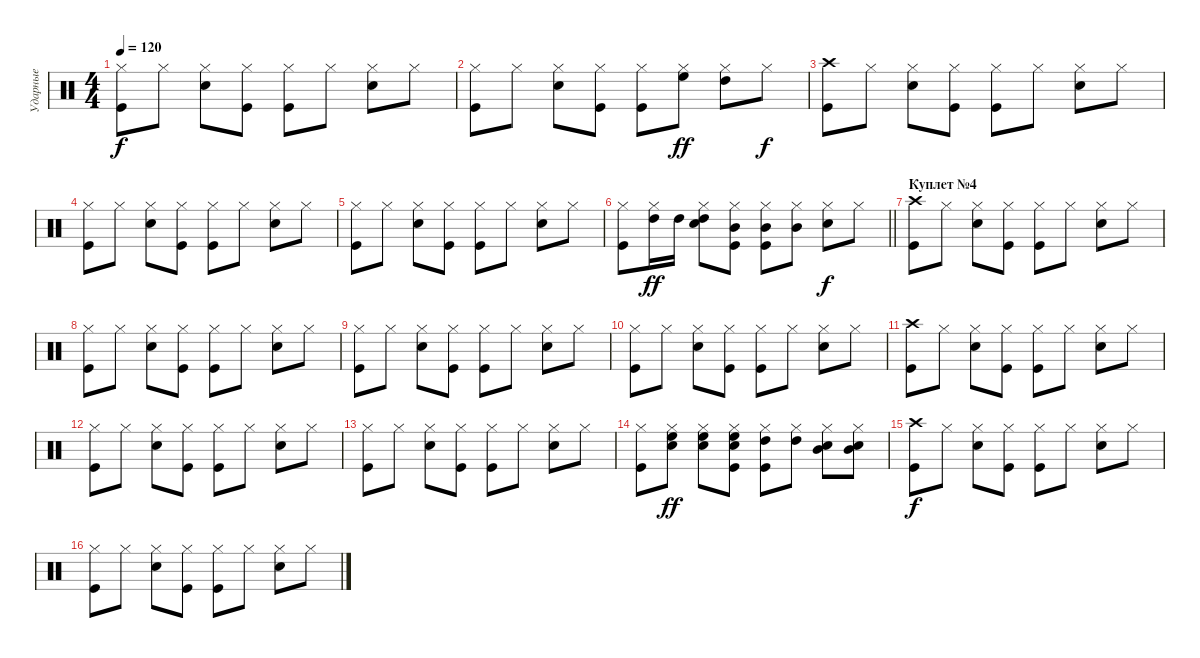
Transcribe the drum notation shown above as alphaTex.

\track ("Ударные" "Ударные") {instrument percussion}
\staff {score}
\articulation defaults
\ts (4 4)
\tempo 120
\clef neutral
\ks c
("Hi-Hat (closed)" "Kick (hit)").8{dy f} "Hi-Hat (closed)".8 ("Hi-Hat (closed)" "Snare (hit) 2").8 ("Hi-Hat (closed)" "Kick (hit)").8 ("Hi-Hat (closed)" "Kick (hit)").8 "Hi-Hat (closed)".8 ("Hi-Hat (closed)" "Snare (hit) 2").8 "Hi-Hat (closed)".8 |
("Hi-Hat (closed)" "Kick (hit)").8 "Hi-Hat (closed)".8 ("Hi-Hat (closed)" "Snare (hit) 2").8 ("Hi-Hat (closed)" "Kick (hit)").8 ("Hi-Hat (closed)" "Kick (hit)").8 ("Hi-Hat (closed)" "High Floor Tom (hit)").8{dy ff} ("Hi-Hat (closed)" "High Tom (hit)").8 "Hi-Hat (closed)".8{dy f} |
("Crash high (hit)" "Kick (hit)").8 "Hi-Hat (closed)".8 ("Hi-Hat (closed)" "Snare (hit) 2").8 ("Hi-Hat (closed)" "Kick (hit)").8 ("Hi-Hat (closed)" "Kick (hit)").8 "Hi-Hat (closed)".8 ("Hi-Hat (closed)" "Snare (hit) 2").8 "Hi-Hat (closed)".8 |
("Hi-Hat (closed)" "Kick (hit)").8 "Hi-Hat (closed)".8 ("Hi-Hat (closed)" "Snare (hit) 2").8 ("Hi-Hat (closed)" "Kick (hit)").8 ("Hi-Hat (closed)" "Kick (hit)").8 "Hi-Hat (closed)".8 ("Hi-Hat (closed)" "Snare (hit) 2").8 "Hi-Hat (closed)".8 |
("Hi-Hat (closed)" "Kick (hit)").8 "Hi-Hat (closed)".8 ("Hi-Hat (closed)" "Snare (hit) 2").8 ("Hi-Hat (closed)" "Kick (hit)").8 ("Hi-Hat (closed)" "Kick (hit)").8 "Hi-Hat (closed)".8 ("Hi-Hat (closed)" "Snare (hit) 2").8 "Hi-Hat (closed)".8 |
\barLineRight lightlight
("Hi-Hat (closed)" "Kick (hit)").8 ("Hi-Hat (closed)" "High Tom (hit)").16{dy ff} "High Tom (hit)".16 ("Hi-Hat (closed)" "High Tom (hit)" "Snare (hit) 2").8 ("Hi-Hat (closed)" "Mid Tom (hit)" "Kick (hit)").8 ("Hi-Hat (closed)" "Mid Tom (hit)" "Kick (hit)").8 ("Hi-Hat (closed)" "Mid Tom (hit)").8 ("Hi-Hat (closed)" "Snare (hit) 2").8{dy f} "Hi-Hat (closed)".8 |
\section ("" "Куплет №4")
("Crash high (hit)" "Kick (hit)").8 "Hi-Hat (closed)".8 ("Hi-Hat (closed)" "Snare (hit) 2").8 ("Hi-Hat (closed)" "Kick (hit)").8 ("Hi-Hat (closed)" "Kick (hit)").8 "Hi-Hat (closed)".8 ("Hi-Hat (closed)" "Snare (hit) 2").8 "Hi-Hat (closed)".8 |
("Hi-Hat (closed)" "Kick (hit)").8 "Hi-Hat (closed)".8 ("Hi-Hat (closed)" "Snare (hit) 2").8 ("Hi-Hat (closed)" "Kick (hit)").8 ("Hi-Hat (closed)" "Kick (hit)").8 "Hi-Hat (closed)".8 ("Hi-Hat (closed)" "Snare (hit) 2").8 "Hi-Hat (closed)".8 |
("Hi-Hat (closed)" "Kick (hit)").8 "Hi-Hat (closed)".8 ("Hi-Hat (closed)" "Snare (hit) 2").8 ("Hi-Hat (closed)" "Kick (hit)").8 ("Hi-Hat (closed)" "Kick (hit)").8 "Hi-Hat (closed)".8 ("Hi-Hat (closed)" "Snare (hit) 2").8 "Hi-Hat (closed)".8 |
("Hi-Hat (closed)" "Kick (hit)").8 "Hi-Hat (closed)".8 ("Hi-Hat (closed)" "Snare (hit) 2").8 ("Hi-Hat (closed)" "Kick (hit)").8 ("Hi-Hat (closed)" "Kick (hit)").8 "Hi-Hat (closed)".8 ("Hi-Hat (closed)" "Snare (hit) 2").8 "Hi-Hat (closed)".8 |
("Crash high (hit)" "Kick (hit)").8 "Hi-Hat (closed)".8 ("Hi-Hat (closed)" "Snare (hit) 2").8 ("Hi-Hat (closed)" "Kick (hit)").8 ("Hi-Hat (closed)" "Kick (hit)").8 "Hi-Hat (closed)".8 ("Hi-Hat (closed)" "Snare (hit) 2").8 "Hi-Hat (closed)".8 |
("Hi-Hat (closed)" "Kick (hit)").8 "Hi-Hat (closed)".8 ("Hi-Hat (closed)" "Snare (hit) 2").8 ("Hi-Hat (closed)" "Kick (hit)").8 ("Hi-Hat (closed)" "Kick (hit)").8 "Hi-Hat (closed)".8 ("Hi-Hat (closed)" "Snare (hit) 2").8 "Hi-Hat (closed)".8 |
("Hi-Hat (closed)" "Kick (hit)").8 "Hi-Hat (closed)".8 ("Hi-Hat (closed)" "Snare (hit) 2").8 ("Hi-Hat (closed)" "Kick (hit)").8 ("Hi-Hat (closed)" "Kick (hit)").8 "Hi-Hat (closed)".8 ("Hi-Hat (closed)" "Snare (hit) 2").8 "Hi-Hat (closed)".8 |
("Hi-Hat (closed)" "Kick (hit)").8 ("Hi-Hat (closed)" "High Floor Tom (hit)" "Snare (hit) 2").8{dy ff} ("Hi-Hat (closed)" "High Floor Tom (hit)" "Snare (hit) 2").8 ("Hi-Hat (closed)" "High Floor Tom (hit)" "Snare (hit) 2" "Kick (hit)").8 ("Hi-Hat (closed)" "High Tom (hit)" "Kick (hit)").8 ("Hi-Hat (closed)" "High Tom (hit)").8 ("Hi-Hat (closed)" "Mid Tom (hit)" "Snare (hit) 2").8 ("Hi-Hat (closed)" "Mid Tom (hit)" "Snare (hit) 2").8 |
("Crash high (hit)" "Kick (hit)").8{dy f} "Hi-Hat (closed)".8 ("Hi-Hat (closed)" "Snare (hit) 2").8 ("Hi-Hat (closed)" "Kick (hit)").8 ("Hi-Hat (closed)" "Kick (hit)").8 "Hi-Hat (closed)".8 ("Hi-Hat (closed)" "Snare (hit) 2").8 "Hi-Hat (closed)".8 |
("Hi-Hat (closed)" "Kick (hit)").8 "Hi-Hat (closed)".8 ("Hi-Hat (closed)" "Snare (hit) 2").8 ("Hi-Hat (closed)" "Kick (hit)").8 ("Hi-Hat (closed)" "Kick (hit)").8 "Hi-Hat (closed)".8 ("Hi-Hat (closed)" "Snare (hit) 2").8 "Hi-Hat (closed)".8
